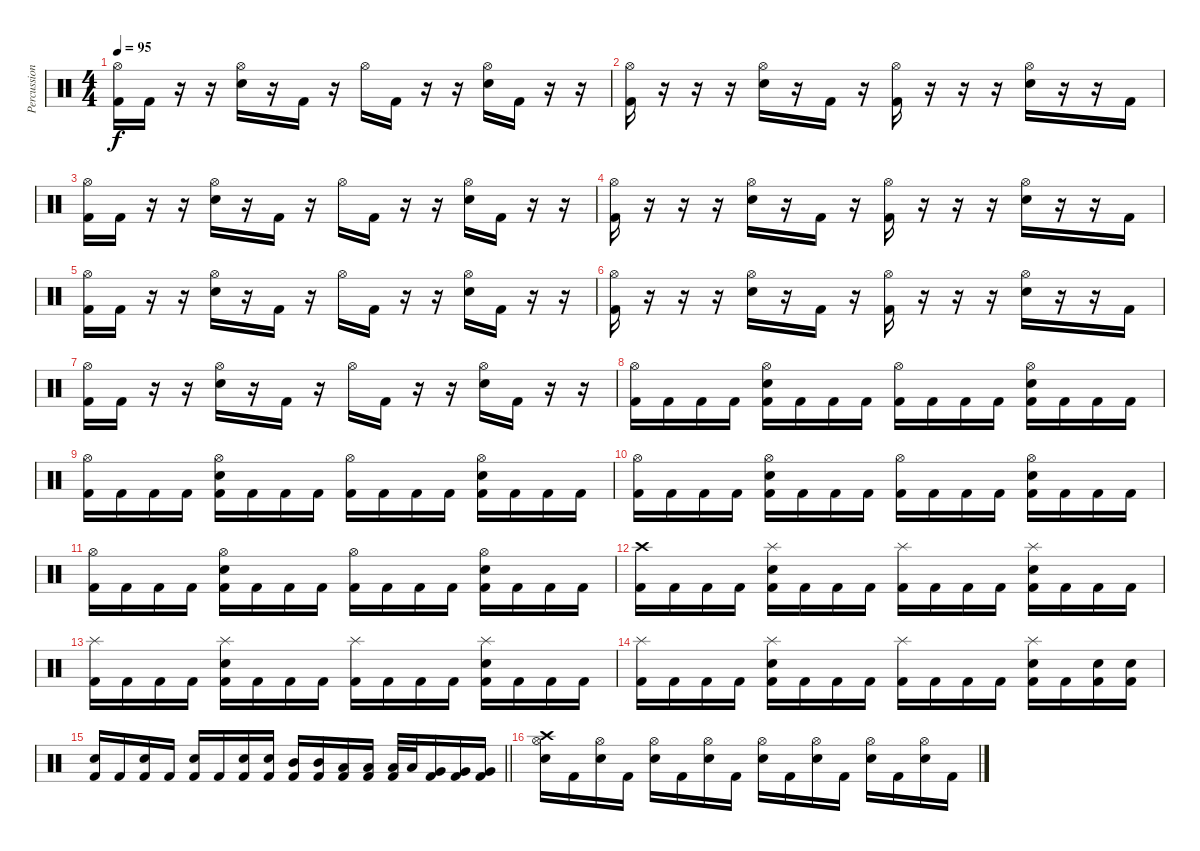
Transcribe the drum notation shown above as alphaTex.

\track ("Percussion" "Percussion") {instrument percussion}
\staff {score}
\articulation defaults
\ts (4 4)
\tempo 95
\clef neutral
\ks c
("Hi-Hat (open)" "Kick (hit) 2").16{dy f} "Kick (hit) 2".16 r.16 r.16 ("Hi-Hat (open)" "Snare (hit) 2").16 r.16 "Kick (hit) 2".16 r.16 "Hi-Hat (open)".16 "Kick (hit) 2".16 r.16 r.16 ("Hi-Hat (open)" "Snare (hit) 2").16 "Kick (hit) 2".16 r.16 r.16 |
("Hi-Hat (open)" "Kick (hit) 2").16 r.16 r.16 r.16 ("Hi-Hat (open)" "Snare (hit) 2").16 r.16 "Kick (hit) 2".16 r.16 ("Hi-Hat (open)" "Kick (hit) 2").16 r.16 r.16 r.16 ("Hi-Hat (open)" "Snare (hit) 2").16 r.16 r.16 "Kick (hit) 2".16 |
("Hi-Hat (open)" "Kick (hit) 2").16 "Kick (hit) 2".16 r.16 r.16 ("Hi-Hat (open)" "Snare (hit) 2").16 r.16 "Kick (hit) 2".16 r.16 "Hi-Hat (open)".16 "Kick (hit) 2".16 r.16 r.16 ("Hi-Hat (open)" "Snare (hit) 2").16 "Kick (hit) 2".16 r.16 r.16 |
("Hi-Hat (open)" "Kick (hit) 2").16 r.16 r.16 r.16 ("Hi-Hat (open)" "Snare (hit) 2").16 r.16 "Kick (hit) 2".16 r.16 ("Hi-Hat (open)" "Kick (hit) 2").16 r.16 r.16 r.16 ("Hi-Hat (open)" "Snare (hit) 2").16 r.16 r.16 "Kick (hit) 2".16 |
("Hi-Hat (open)" "Kick (hit) 2").16 "Kick (hit) 2".16 r.16 r.16 ("Hi-Hat (open)" "Snare (hit) 2").16 r.16 "Kick (hit) 2".16 r.16 "Hi-Hat (open)".16 "Kick (hit) 2".16 r.16 r.16 ("Hi-Hat (open)" "Snare (hit) 2").16 "Kick (hit) 2".16 r.16 r.16 |
("Hi-Hat (open)" "Kick (hit) 2").16 r.16 r.16 r.16 ("Hi-Hat (open)" "Snare (hit) 2").16 r.16 "Kick (hit) 2".16 r.16 ("Hi-Hat (open)" "Kick (hit) 2").16 r.16 r.16 r.16 ("Hi-Hat (open)" "Snare (hit) 2").16 r.16 r.16 "Kick (hit) 2".16 |
("Hi-Hat (open)" "Kick (hit) 2").16 "Kick (hit) 2".16 r.16 r.16 ("Hi-Hat (open)" "Snare (hit) 2").16 r.16 "Kick (hit) 2".16 r.16 "Hi-Hat (open)".16 "Kick (hit) 2".16 r.16 r.16 ("Hi-Hat (open)" "Snare (hit) 2").16 "Kick (hit) 2".16 r.16 r.16 |
("Hi-Hat (open)" "Kick (hit) 2").16 "Kick (hit) 2".16 "Kick (hit) 2".16 "Kick (hit) 2".16 ("Hi-Hat (open)" "Snare (hit) 2" "Kick (hit) 2").16 "Kick (hit) 2".16 "Kick (hit) 2".16 "Kick (hit) 2".16 ("Hi-Hat (open)" "Kick (hit) 2").16 "Kick (hit) 2".16 "Kick (hit) 2".16 "Kick (hit) 2".16 ("Hi-Hat (open)" "Snare (hit) 2" "Kick (hit) 2").16 "Kick (hit) 2".16 "Kick (hit) 2".16 "Kick (hit) 2".16 |
("Hi-Hat (open)" "Kick (hit) 2").16 "Kick (hit) 2".16 "Kick (hit) 2".16 "Kick (hit) 2".16 ("Hi-Hat (open)" "Snare (hit) 2" "Kick (hit) 2").16 "Kick (hit) 2".16 "Kick (hit) 2".16 "Kick (hit) 2".16 ("Hi-Hat (open)" "Kick (hit) 2").16 "Kick (hit) 2".16 "Kick (hit) 2".16 "Kick (hit) 2".16 ("Hi-Hat (open)" "Snare (hit) 2" "Kick (hit) 2").16 "Kick (hit) 2".16 "Kick (hit) 2".16 "Kick (hit) 2".16 |
("Hi-Hat (open)" "Kick (hit) 2").16 "Kick (hit) 2".16 "Kick (hit) 2".16 "Kick (hit) 2".16 ("Hi-Hat (open)" "Snare (hit) 2" "Kick (hit) 2").16 "Kick (hit) 2".16 "Kick (hit) 2".16 "Kick (hit) 2".16 ("Hi-Hat (open)" "Kick (hit) 2").16 "Kick (hit) 2".16 "Kick (hit) 2".16 "Kick (hit) 2".16 ("Hi-Hat (open)" "Snare (hit) 2" "Kick (hit) 2").16 "Kick (hit) 2".16 "Kick (hit) 2".16 "Kick (hit) 2".16 |
("Hi-Hat (open)" "Kick (hit) 2").16 "Kick (hit) 2".16 "Kick (hit) 2".16 "Kick (hit) 2".16 ("Hi-Hat (open)" "Snare (hit) 2" "Kick (hit) 2").16 "Kick (hit) 2".16 "Kick (hit) 2".16 "Kick (hit) 2".16 ("Hi-Hat (open)" "Kick (hit) 2").16 "Kick (hit) 2".16 "Kick (hit) 2".16 "Kick (hit) 2".16 ("Hi-Hat (open)" "Snare (hit) 2" "Kick (hit) 2").16 "Kick (hit) 2".16 "Kick (hit) 2".16 "Kick (hit) 2".16 |
("Crash high (hit)" "Kick (hit) 2").16 "Kick (hit) 2".16 "Kick (hit) 2".16 "Kick (hit) 2".16 ("Splash (hit)" "Snare (hit) 2" "Kick (hit) 2").16 "Kick (hit) 2".16 "Kick (hit) 2".16 "Kick (hit) 2".16 ("Splash (hit)" "Kick (hit) 2").16 "Kick (hit) 2".16 "Kick (hit) 2".16 "Kick (hit) 2".16 ("Splash (hit)" "Snare (hit) 2" "Kick (hit) 2").16 "Kick (hit) 2".16 "Kick (hit) 2".16 "Kick (hit) 2".16 |
("Splash (hit)" "Kick (hit) 2").16 "Kick (hit) 2".16 "Kick (hit) 2".16 "Kick (hit) 2".16 ("Splash (hit)" "Snare (hit) 2" "Kick (hit) 2").16 "Kick (hit) 2".16 "Kick (hit) 2".16 "Kick (hit) 2".16 ("Splash (hit)" "Kick (hit) 2").16 "Kick (hit) 2".16 "Kick (hit) 2".16 "Kick (hit) 2".16 ("Splash (hit)" "Snare (hit) 2" "Kick (hit) 2").16 "Kick (hit) 2".16 "Kick (hit) 2".16 "Kick (hit) 2".16 |
("Splash (hit)" "Kick (hit) 2").16 "Kick (hit) 2".16 "Kick (hit) 2".16 "Kick (hit) 2".16 ("Splash (hit)" "Snare (hit) 2" "Kick (hit) 2").16 "Kick (hit) 2".16 "Kick (hit) 2".16 "Kick (hit) 2".16 ("Splash (hit)" "Kick (hit) 2").16 "Kick (hit) 2".16 "Kick (hit) 2".16 "Kick (hit) 2".16 ("Splash (hit)" "Snare (hit) 2" "Kick (hit) 2").16 "Kick (hit) 2".16 ("Snare (hit) 2" "Kick (hit) 2").16 ("Snare (hit) 2" "Kick (hit) 2").16 |
\barLineRight lightlight
("Snare (hit) 2" "Kick (hit) 2").16 "Kick (hit) 2".16 ("Snare (hit) 2" "Kick (hit) 2").16 "Kick (hit) 2".16 ("Snare (hit) 2" "Kick (hit) 2").16 "Kick (hit) 2".16 ("Snare (hit) 2" "Kick (hit) 2").16 ("Snare (hit) 2" "Kick (hit) 2").16 ("Mid Tom (hit)" "Kick (hit) 2").16 ("Mid Tom (hit)" "Kick (hit) 2").16 ("Low Tom (hit)" "Kick (hit) 2").16 ("Low Tom (hit)" "Kick (hit) 2").16 ("Low Tom (hit)" "Kick (hit) 2").32 "Low Tom (hit)".32 ("Very Low Tom (hit)" "Kick (hit) 2").16 ("Very Low Tom (hit)" "Kick (hit) 2").16 ("Very Low Tom (hit)" "Kick (hit) 2").16 |
("Crash high (hit)" "Hi-Hat (open)" "Snare (hit) 2").16 "Kick (hit) 2".16 ("Hi-Hat (open)" "Snare (hit) 2").16 "Kick (hit) 2".16 ("Hi-Hat (open)" "Snare (hit) 2").16 "Kick (hit) 2".16 ("Hi-Hat (open)" "Snare (hit) 2").16 "Kick (hit) 2".16 ("Hi-Hat (open)" "Snare (hit) 2").16 "Kick (hit) 2".16 ("Hi-Hat (open)" "Snare (hit) 2").16 "Kick (hit) 2".16 ("Hi-Hat (open)" "Snare (hit) 2").16 "Kick (hit) 2".16 ("Hi-Hat (open)" "Snare (hit) 2").16 "Kick (hit) 2".16
